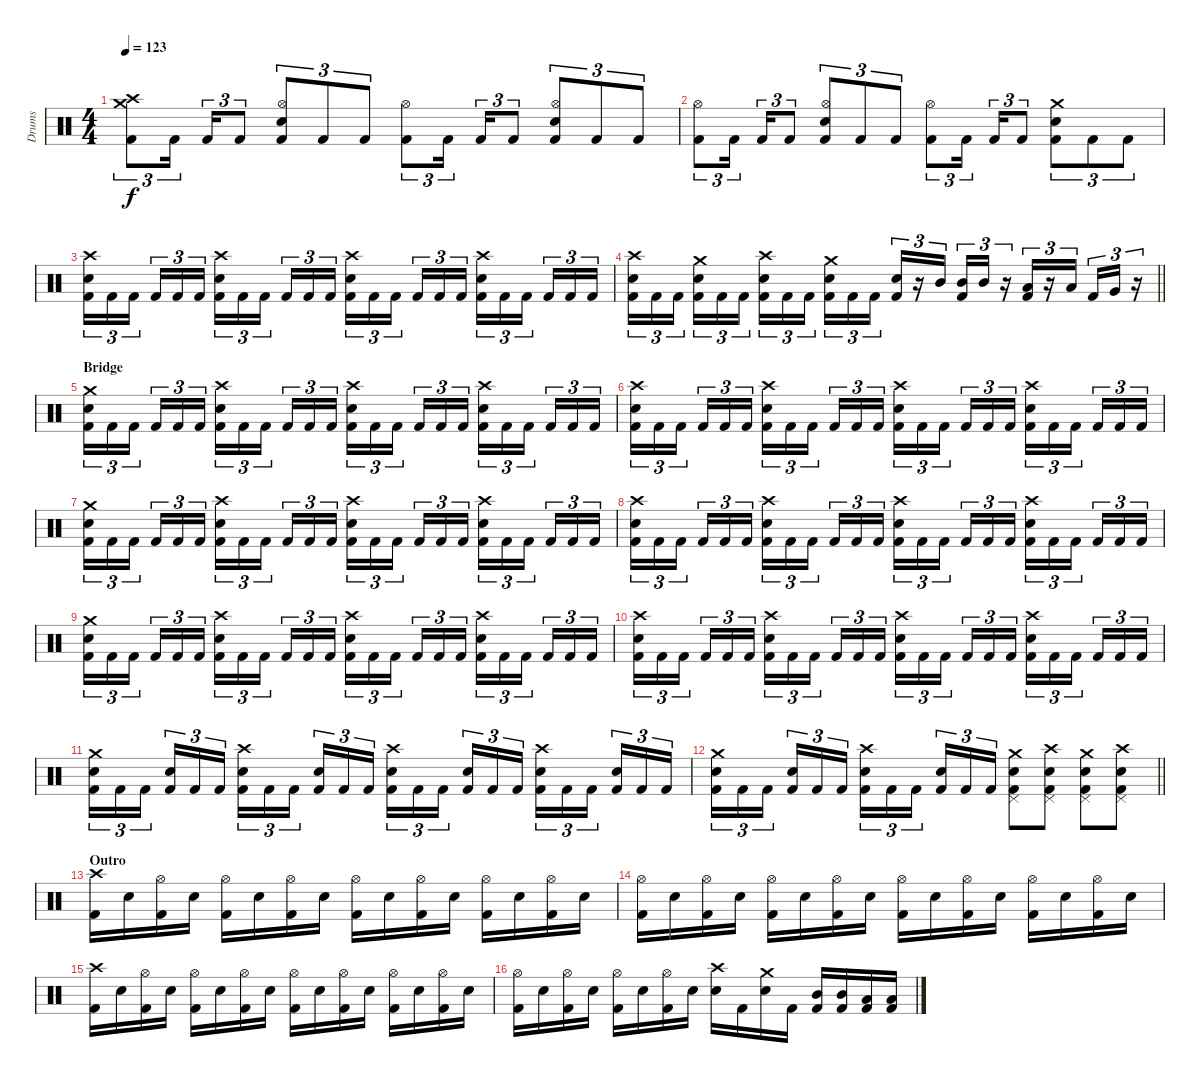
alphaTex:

\track ("Drums" "Drums") {instrument percussion}
\staff {score}
\articulation defaults
\ts (4 4)
\tempo 123
\clef neutral
\ks c
("Crash high (hit)" "Crash medium (hit)" "Kick (hit) 2").8{tu (3 2) dy f} "Kick (hit) 2".16{tu (3 2) beam splitsecondary} "Kick (hit) 2".16{tu (3 2)} "Kick (hit) 2".8{tu (3 2)} ("Hi-Hat (open)" "Snare (hit) 2" "Kick (hit) 2").8{tu (3 2)} "Kick (hit) 2".8{tu (3 2)} "Kick (hit) 2".8{tu (3 2)} ("Hi-Hat (open)" "Kick (hit) 2").8{tu (3 2)} "Kick (hit) 2".16{tu (3 2) beam splitsecondary} "Kick (hit) 2".16{tu (3 2)} "Kick (hit) 2".8{tu (3 2)} ("Hi-Hat (open)" "Snare (hit) 2" "Kick (hit) 2").8{tu (3 2)} "Kick (hit) 2".8{tu (3 2)} "Kick (hit) 2".8{tu (3 2)} |
("Hi-Hat (open)" "Kick (hit) 2").8{tu (3 2)} "Kick (hit) 2".16{tu (3 2) beam splitsecondary} "Kick (hit) 2".16{tu (3 2)} "Kick (hit) 2".8{tu (3 2)} ("Hi-Hat (open)" "Snare (hit) 2" "Kick (hit) 2").8{tu (3 2)} "Kick (hit) 2".8{tu (3 2)} "Kick (hit) 2".8{tu (3 2)} ("Hi-Hat (open)" "Kick (hit) 2").8{tu (3 2)} "Kick (hit) 2".16{tu (3 2) beam splitsecondary} "Kick (hit) 2".16{tu (3 2)} "Kick (hit) 2".8{tu (3 2)} ("Crash medium (hit)" "Snare (hit) 2" "Kick (hit) 2").8{tu (3 2)} "Kick (hit) 2".8{tu (3 2)} "Kick (hit) 2".8{tu (3 2)} |
("Crash high (hit)" "Snare (hit) 2" "Kick (hit) 2").16{tu (3 2)} "Kick (hit) 2".16{tu (3 2)} "Kick (hit) 2".16{tu (3 2) beam splitsecondary} "Kick (hit) 2".16{tu (3 2)} "Kick (hit) 2".16{tu (3 2)} "Kick (hit) 2".16{tu (3 2)} ("Crash high (hit)" "Snare (hit) 2" "Kick (hit) 2").16{tu (3 2)} "Kick (hit) 2".16{tu (3 2)} "Kick (hit) 2".16{tu (3 2) beam splitsecondary} "Kick (hit) 2".16{tu (3 2)} "Kick (hit) 2".16{tu (3 2)} "Kick (hit) 2".16{tu (3 2)} ("Crash high (hit)" "Snare (hit) 2" "Kick (hit) 2").16{tu (3 2)} "Kick (hit) 2".16{tu (3 2)} "Kick (hit) 2".16{tu (3 2) beam splitsecondary} "Kick (hit) 2".16{tu (3 2)} "Kick (hit) 2".16{tu (3 2)} "Kick (hit) 2".16{tu (3 2)} ("Crash high (hit)" "Snare (hit) 2" "Kick (hit) 2").16{tu (3 2)} "Kick (hit) 2".16{tu (3 2)} "Kick (hit) 2".16{tu (3 2) beam splitsecondary} "Kick (hit) 2".16{tu (3 2)} "Kick (hit) 2".16{tu (3 2)} "Kick (hit) 2".16{tu (3 2)} |
\barLineRight lightlight
("Crash high (hit)" "Snare (hit) 2" "Kick (hit) 2").16{tu (3 2)} "Kick (hit) 2".16{tu (3 2)} "Kick (hit) 2".16{tu (3 2) beam splitsecondary} ("Crash medium (hit)" "Snare (hit) 2" "Kick (hit) 2").16{tu (3 2)} "Kick (hit) 2".16{tu (3 2)} "Kick (hit) 2".16{tu (3 2)} ("Crash high (hit)" "Snare (hit) 2" "Kick (hit) 2").16{tu (3 2)} "Kick (hit) 2".16{tu (3 2)} "Kick (hit) 2".16{tu (3 2) beam splitsecondary} ("Crash medium (hit)" "Snare (hit) 2" "Kick (hit) 2").16{tu (3 2)} "Kick (hit) 2".16{tu (3 2)} "Kick (hit) 2".16{tu (3 2)} ("Snare (hit) 2" "Kick (hit) 2").16{tu (3 2)} r.16{tu (3 2)} "Mid Tom (hit)".16{tu (3 2) beam splitsecondary} ("Mid Tom (hit)" "Kick (hit) 2").16{tu (3 2)} "Mid Tom (hit)".16{tu (3 2)} r.16{tu (3 2)} ("Low Tom (hit)" "Kick (hit) 2").16{tu (3 2)} r.16{tu (3 2)} "Low Tom (hit)".16{tu (3 2) beam splitsecondary} "Kick (hit) 2".16{tu (3 2)} "Very Low Tom (hit)".16{tu (3 2)} r.16{tu (3 2)} |
\section ("" "Bridge")
("Crash medium (hit)" "Snare (hit) 2" "Kick (hit) 2").16{tu (3 2)} "Kick (hit) 2".16{tu (3 2)} "Kick (hit) 2".16{tu (3 2) beam splitsecondary} "Kick (hit) 2".16{tu (3 2)} "Kick (hit) 2".16{tu (3 2)} "Kick (hit) 2".16{tu (3 2)} ("Crash high (hit)" "Snare (hit) 2" "Kick (hit) 2").16{tu (3 2)} "Kick (hit) 2".16{tu (3 2)} "Kick (hit) 2".16{tu (3 2) beam splitsecondary} "Kick (hit) 2".16{tu (3 2)} "Kick (hit) 2".16{tu (3 2)} "Kick (hit) 2".16{tu (3 2)} ("Crash high (hit)" "Snare (hit) 2" "Kick (hit) 2").16{tu (3 2)} "Kick (hit) 2".16{tu (3 2)} "Kick (hit) 2".16{tu (3 2) beam splitsecondary} "Kick (hit) 2".16{tu (3 2)} "Kick (hit) 2".16{tu (3 2)} "Kick (hit) 2".16{tu (3 2)} ("Crash high (hit)" "Snare (hit) 2" "Kick (hit) 2").16{tu (3 2)} "Kick (hit) 2".16{tu (3 2)} "Kick (hit) 2".16{tu (3 2) beam splitsecondary} "Kick (hit) 2".16{tu (3 2)} "Kick (hit) 2".16{tu (3 2)} "Kick (hit) 2".16{tu (3 2)} |
("Crash high (hit)" "Snare (hit) 2" "Kick (hit) 2").16{tu (3 2)} "Kick (hit) 2".16{tu (3 2)} "Kick (hit) 2".16{tu (3 2) beam splitsecondary} "Kick (hit) 2".16{tu (3 2)} "Kick (hit) 2".16{tu (3 2)} "Kick (hit) 2".16{tu (3 2)} ("Crash high (hit)" "Snare (hit) 2" "Kick (hit) 2").16{tu (3 2)} "Kick (hit) 2".16{tu (3 2)} "Kick (hit) 2".16{tu (3 2) beam splitsecondary} "Kick (hit) 2".16{tu (3 2)} "Kick (hit) 2".16{tu (3 2)} "Kick (hit) 2".16{tu (3 2)} ("Crash high (hit)" "Snare (hit) 2" "Kick (hit) 2").16{tu (3 2)} "Kick (hit) 2".16{tu (3 2)} "Kick (hit) 2".16{tu (3 2) beam splitsecondary} "Kick (hit) 2".16{tu (3 2)} "Kick (hit) 2".16{tu (3 2)} "Kick (hit) 2".16{tu (3 2)} ("Crash high (hit)" "Snare (hit) 2" "Kick (hit) 2").16{tu (3 2)} "Kick (hit) 2".16{tu (3 2)} "Kick (hit) 2".16{tu (3 2) beam splitsecondary} "Kick (hit) 2".16{tu (3 2)} "Kick (hit) 2".16{tu (3 2)} "Kick (hit) 2".16{tu (3 2)} |
("Crash medium (hit)" "Snare (hit) 2" "Kick (hit) 2").16{tu (3 2)} "Kick (hit) 2".16{tu (3 2)} "Kick (hit) 2".16{tu (3 2) beam splitsecondary} "Kick (hit) 2".16{tu (3 2)} "Kick (hit) 2".16{tu (3 2)} "Kick (hit) 2".16{tu (3 2)} ("Crash high (hit)" "Snare (hit) 2" "Kick (hit) 2").16{tu (3 2)} "Kick (hit) 2".16{tu (3 2)} "Kick (hit) 2".16{tu (3 2) beam splitsecondary} "Kick (hit) 2".16{tu (3 2)} "Kick (hit) 2".16{tu (3 2)} "Kick (hit) 2".16{tu (3 2)} ("Crash high (hit)" "Snare (hit) 2" "Kick (hit) 2").16{tu (3 2)} "Kick (hit) 2".16{tu (3 2)} "Kick (hit) 2".16{tu (3 2) beam splitsecondary} "Kick (hit) 2".16{tu (3 2)} "Kick (hit) 2".16{tu (3 2)} "Kick (hit) 2".16{tu (3 2)} ("Crash high (hit)" "Snare (hit) 2" "Kick (hit) 2").16{tu (3 2)} "Kick (hit) 2".16{tu (3 2)} "Kick (hit) 2".16{tu (3 2) beam splitsecondary} "Kick (hit) 2".16{tu (3 2)} "Kick (hit) 2".16{tu (3 2)} "Kick (hit) 2".16{tu (3 2)} |
("Crash high (hit)" "Snare (hit) 2" "Kick (hit) 2").16{tu (3 2)} "Kick (hit) 2".16{tu (3 2)} "Kick (hit) 2".16{tu (3 2) beam splitsecondary} "Kick (hit) 2".16{tu (3 2)} "Kick (hit) 2".16{tu (3 2)} "Kick (hit) 2".16{tu (3 2)} ("Crash high (hit)" "Snare (hit) 2" "Kick (hit) 2").16{tu (3 2)} "Kick (hit) 2".16{tu (3 2)} "Kick (hit) 2".16{tu (3 2) beam splitsecondary} "Kick (hit) 2".16{tu (3 2)} "Kick (hit) 2".16{tu (3 2)} "Kick (hit) 2".16{tu (3 2)} ("Crash high (hit)" "Snare (hit) 2" "Kick (hit) 2").16{tu (3 2)} "Kick (hit) 2".16{tu (3 2)} "Kick (hit) 2".16{tu (3 2) beam splitsecondary} "Kick (hit) 2".16{tu (3 2)} "Kick (hit) 2".16{tu (3 2)} "Kick (hit) 2".16{tu (3 2)} ("Crash high (hit)" "Snare (hit) 2" "Kick (hit) 2").16{tu (3 2)} "Kick (hit) 2".16{tu (3 2)} "Kick (hit) 2".16{tu (3 2) beam splitsecondary} "Kick (hit) 2".16{tu (3 2)} "Kick (hit) 2".16{tu (3 2)} "Kick (hit) 2".16{tu (3 2)} |
("Crash medium (hit)" "Snare (hit) 2" "Kick (hit) 2").16{tu (3 2)} "Kick (hit) 2".16{tu (3 2)} "Kick (hit) 2".16{tu (3 2) beam splitsecondary} "Kick (hit) 2".16{tu (3 2)} "Kick (hit) 2".16{tu (3 2)} "Kick (hit) 2".16{tu (3 2)} ("Crash high (hit)" "Snare (hit) 2" "Kick (hit) 2").16{tu (3 2)} "Kick (hit) 2".16{tu (3 2)} "Kick (hit) 2".16{tu (3 2) beam splitsecondary} "Kick (hit) 2".16{tu (3 2)} "Kick (hit) 2".16{tu (3 2)} "Kick (hit) 2".16{tu (3 2)} ("Crash high (hit)" "Snare (hit) 2" "Kick (hit) 2").16{tu (3 2)} "Kick (hit) 2".16{tu (3 2)} "Kick (hit) 2".16{tu (3 2) beam splitsecondary} "Kick (hit) 2".16{tu (3 2)} "Kick (hit) 2".16{tu (3 2)} "Kick (hit) 2".16{tu (3 2)} ("Crash high (hit)" "Snare (hit) 2" "Kick (hit) 2").16{tu (3 2)} "Kick (hit) 2".16{tu (3 2)} "Kick (hit) 2".16{tu (3 2) beam splitsecondary} "Kick (hit) 2".16{tu (3 2)} "Kick (hit) 2".16{tu (3 2)} "Kick (hit) 2".16{tu (3 2)} |
("Crash high (hit)" "Snare (hit) 2" "Kick (hit) 2").16{tu (3 2)} "Kick (hit) 2".16{tu (3 2)} "Kick (hit) 2".16{tu (3 2) beam splitsecondary} "Kick (hit) 2".16{tu (3 2)} "Kick (hit) 2".16{tu (3 2)} "Kick (hit) 2".16{tu (3 2)} ("Crash high (hit)" "Snare (hit) 2" "Kick (hit) 2").16{tu (3 2)} "Kick (hit) 2".16{tu (3 2)} "Kick (hit) 2".16{tu (3 2) beam splitsecondary} "Kick (hit) 2".16{tu (3 2)} "Kick (hit) 2".16{tu (3 2)} "Kick (hit) 2".16{tu (3 2)} ("Crash high (hit)" "Snare (hit) 2" "Kick (hit) 2").16{tu (3 2)} "Kick (hit) 2".16{tu (3 2)} "Kick (hit) 2".16{tu (3 2) beam splitsecondary} "Kick (hit) 2".16{tu (3 2)} "Kick (hit) 2".16{tu (3 2)} "Kick (hit) 2".16{tu (3 2)} ("Crash high (hit)" "Snare (hit) 2" "Kick (hit) 2").16{tu (3 2)} "Kick (hit) 2".16{tu (3 2)} "Kick (hit) 2".16{tu (3 2) beam splitsecondary} "Kick (hit) 2".16{tu (3 2)} "Kick (hit) 2".16{tu (3 2)} "Kick (hit) 2".16{tu (3 2)} |
("Crash medium (hit)" "Snare (hit) 2" "Kick (hit) 2").16{tu (3 2)} "Kick (hit) 2".16{tu (3 2)} "Kick (hit) 2".16{tu (3 2) beam splitsecondary} ("Snare (hit) 2" "Kick (hit) 2").16{tu (3 2)} "Kick (hit) 2".16{tu (3 2)} "Kick (hit) 2".16{tu (3 2)} ("Crash high (hit)" "Snare (hit) 2" "Kick (hit) 2").16{tu (3 2)} "Kick (hit) 2".16{tu (3 2)} "Kick (hit) 2".16{tu (3 2) beam splitsecondary} ("Snare (hit) 2" "Kick (hit) 2").16{tu (3 2)} "Kick (hit) 2".16{tu (3 2)} "Kick (hit) 2".16{tu (3 2)} ("Crash high (hit)" "Snare (hit) 2" "Kick (hit) 2").16{tu (3 2)} "Kick (hit) 2".16{tu (3 2)} "Kick (hit) 2".16{tu (3 2) beam splitsecondary} ("Snare (hit) 2" "Kick (hit) 2").16{tu (3 2)} "Kick (hit) 2".16{tu (3 2)} "Kick (hit) 2".16{tu (3 2)} ("Crash high (hit)" "Snare (hit) 2" "Kick (hit) 2").16{tu (3 2)} "Kick (hit) 2".16{tu (3 2)} "Kick (hit) 2".16{tu (3 2) beam splitsecondary} ("Snare (hit) 2" "Kick (hit) 2").16{tu (3 2)} "Kick (hit) 2".16{tu (3 2)} "Kick (hit) 2".16{tu (3 2)} |
\barLineRight lightlight
("Crash medium (hit)" "Snare (hit) 2" "Kick (hit) 2").16{tu (3 2)} "Kick (hit) 2".16{tu (3 2)} "Kick (hit) 2".16{tu (3 2) beam splitsecondary} ("Snare (hit) 2" "Kick (hit) 2").16{tu (3 2)} "Kick (hit) 2".16{tu (3 2)} "Kick (hit) 2".16{tu (3 2)} ("Crash high (hit)" "Snare (hit) 2" "Kick (hit) 2").16{tu (3 2)} "Kick (hit) 2".16{tu (3 2)} "Kick (hit) 2".16{tu (3 2) beam splitsecondary} ("Snare (hit) 2" "Kick (hit) 2").16{tu (3 2)} "Kick (hit) 2".16{tu (3 2)} "Kick (hit) 2".16{tu (3 2)} ("Crash medium (hit)" "Pedal Hi-Hat (hit)" "Snare (hit) 2" "Kick (hit) 2").8 ("Crash high (hit)" "Pedal Hi-Hat (hit)" "Snare (hit) 2" "Kick (hit) 2").8 ("Crash medium (hit)" "Pedal Hi-Hat (hit)" "Snare (hit) 2" "Kick (hit) 2").8 ("Crash high (hit)" "Pedal Hi-Hat (hit)" "Snare (hit) 2" "Kick (hit) 2").8 |
\section ("" "Outro")
("Crash high (hit)" "Kick (hit) 2").16 "Snare (hit) 2".16 ("Hi-Hat (open)" "Kick (hit) 2").16 "Snare (hit) 2".16 ("Hi-Hat (open)" "Kick (hit) 2").16 "Snare (hit) 2".16 ("Hi-Hat (open)" "Kick (hit) 2").16 "Snare (hit) 2".16 ("Hi-Hat (open)" "Kick (hit) 2").16 "Snare (hit) 2".16 ("Hi-Hat (open)" "Kick (hit) 2").16 "Snare (hit) 2".16 ("Hi-Hat (open)" "Kick (hit) 2").16 "Snare (hit) 2".16 ("Hi-Hat (open)" "Kick (hit) 2").16 "Snare (hit) 2".16 |
("Hi-Hat (open)" "Kick (hit) 2").16 "Snare (hit) 2".16 ("Hi-Hat (open)" "Kick (hit) 2").16 "Snare (hit) 2".16 ("Hi-Hat (open)" "Kick (hit) 2").16 "Snare (hit) 2".16 ("Hi-Hat (open)" "Kick (hit) 2").16 "Snare (hit) 2".16 ("Hi-Hat (open)" "Kick (hit) 2").16 "Snare (hit) 2".16 ("Hi-Hat (open)" "Kick (hit) 2").16 "Snare (hit) 2".16 ("Hi-Hat (open)" "Kick (hit) 2").16 "Snare (hit) 2".16 ("Hi-Hat (open)" "Kick (hit) 2").16 "Snare (hit) 2".16 |
("Crash high (hit)" "Kick (hit) 2").16 "Snare (hit) 2".16 ("Hi-Hat (open)" "Kick (hit) 2").16 "Snare (hit) 2".16 ("Hi-Hat (open)" "Kick (hit) 2").16 "Snare (hit) 2".16 ("Hi-Hat (open)" "Kick (hit) 2").16 "Snare (hit) 2".16 ("Hi-Hat (open)" "Kick (hit) 2").16 "Snare (hit) 2".16 ("Hi-Hat (open)" "Kick (hit) 2").16 "Snare (hit) 2".16 ("Hi-Hat (open)" "Kick (hit) 2").16 "Snare (hit) 2".16 ("Hi-Hat (open)" "Kick (hit) 2").16 "Snare (hit) 2".16 |
("Hi-Hat (open)" "Kick (hit) 2").16 "Snare (hit) 2".16 ("Hi-Hat (open)" "Kick (hit) 2").16 "Snare (hit) 2".16 ("Hi-Hat (open)" "Kick (hit) 2").16 "Snare (hit) 2".16 ("Hi-Hat (open)" "Kick (hit) 2").16 "Snare (hit) 2".16 ("Crash high (hit)" "Snare (hit) 2").16 "Kick (hit) 2".16 ("Crash medium (hit)" "Snare (hit) 2").16 "Kick (hit) 2".16 ("Mid Tom (hit)" "Kick (hit) 2").16 ("Mid Tom (hit)" "Kick (hit) 2").16 ("Low Tom (hit)" "Kick (hit) 2").16 ("Low Tom (hit)" "Kick (hit) 2").16
